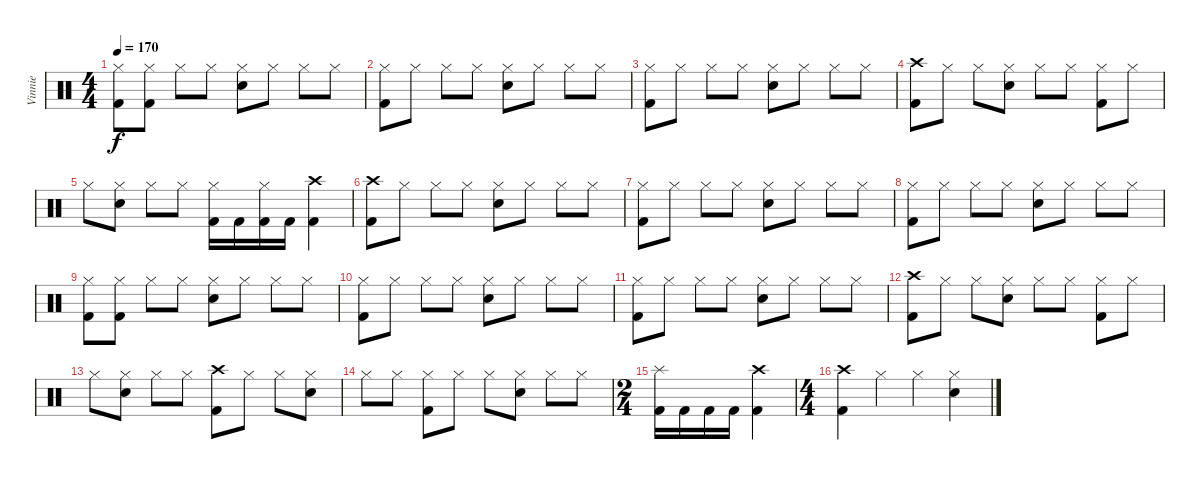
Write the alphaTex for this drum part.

\track ("Vinnie" "Vinnie") {instrument percussion}
\staff {score}
\articulation defaults
\ts (4 4)
\tempo 170
\clef neutral
\ks c
("Hi-Hat (closed)" "Kick (hit) 2").8{dy f} ("Hi-Hat (closed)" "Kick (hit) 2").8 "Hi-Hat (closed)".8 "Hi-Hat (closed)".8 ("Hi-Hat (closed)" "Electric Snare (hit)").8 "Hi-Hat (closed)".8 "Hi-Hat (closed)".8 "Hi-Hat (closed)".8 |
("Hi-Hat (closed)" "Kick (hit) 2").8 "Hi-Hat (closed)".8 "Hi-Hat (closed)".8 "Hi-Hat (closed)".8 ("Hi-Hat (closed)" "Electric Snare (hit)").8 "Hi-Hat (closed)".8 "Hi-Hat (closed)".8 "Hi-Hat (closed)".8 |
("Hi-Hat (closed)" "Kick (hit) 2").8 "Hi-Hat (closed)".8 "Hi-Hat (closed)".8 "Hi-Hat (closed)".8 ("Hi-Hat (closed)" "Electric Snare (hit)").8 "Hi-Hat (closed)".8 "Hi-Hat (closed)".8 "Hi-Hat (closed)".8 |
("Crash high (hit)" "Kick (hit) 2").8 "Hi-Hat (closed)".8 "Hi-Hat (closed)".8 ("Hi-Hat (closed)" "Electric Snare (hit)").8 "Hi-Hat (closed)".8 "Hi-Hat (closed)".8 ("Hi-Hat (closed)" "Kick (hit) 2").8 "Hi-Hat (closed)".8 |
"Hi-Hat (closed)".8 ("Hi-Hat (closed)" "Electric Snare (hit)").8 "Hi-Hat (closed)".8 "Hi-Hat (closed)".8 ("Hi-Hat (closed)" "Kick (hit) 2").16 "Kick (hit) 2".16 ("Hi-Hat (closed)" "Kick (hit) 2").16 "Kick (hit) 2".16 ("Crash high (hit)" "Kick (hit) 2").4 |
("Crash high (hit)" "Kick (hit) 2").8 "Hi-Hat (closed)".8 "Hi-Hat (closed)".8 "Hi-Hat (closed)".8 ("Hi-Hat (closed)" "Electric Snare (hit)").8 "Hi-Hat (closed)".8 "Hi-Hat (closed)".8 "Hi-Hat (closed)".8 |
("Hi-Hat (closed)" "Kick (hit) 2").8 "Hi-Hat (closed)".8 "Hi-Hat (closed)".8 "Hi-Hat (closed)".8 ("Hi-Hat (closed)" "Electric Snare (hit)").8 "Hi-Hat (closed)".8 "Hi-Hat (closed)".8 "Hi-Hat (closed)".8 |
("Hi-Hat (closed)" "Kick (hit) 2").8 "Hi-Hat (closed)".8 "Hi-Hat (closed)".8 "Hi-Hat (closed)".8 ("Hi-Hat (closed)" "Electric Snare (hit)").8 "Hi-Hat (closed)".8 "Hi-Hat (closed)".8 "Hi-Hat (closed)".8 |
("Hi-Hat (closed)" "Kick (hit) 2").8 ("Hi-Hat (closed)" "Kick (hit) 2").8 "Hi-Hat (closed)".8 "Hi-Hat (closed)".8 ("Hi-Hat (closed)" "Electric Snare (hit)").8 "Hi-Hat (closed)".8 "Hi-Hat (closed)".8 "Hi-Hat (closed)".8 |
("Hi-Hat (closed)" "Kick (hit) 2").8 "Hi-Hat (closed)".8 "Hi-Hat (closed)".8 "Hi-Hat (closed)".8 ("Hi-Hat (closed)" "Electric Snare (hit)").8 "Hi-Hat (closed)".8 "Hi-Hat (closed)".8 "Hi-Hat (closed)".8 |
("Hi-Hat (closed)" "Kick (hit) 2").8 "Hi-Hat (closed)".8 "Hi-Hat (closed)".8 "Hi-Hat (closed)".8 ("Hi-Hat (closed)" "Electric Snare (hit)").8 "Hi-Hat (closed)".8 "Hi-Hat (closed)".8 "Hi-Hat (closed)".8 |
("Crash high (hit)" "Kick (hit) 2").8 "Hi-Hat (closed)".8 "Hi-Hat (closed)".8 ("Hi-Hat (closed)" "Electric Snare (hit)").8 "Hi-Hat (closed)".8 "Hi-Hat (closed)".8 ("Hi-Hat (closed)" "Kick (hit) 2").8 "Hi-Hat (closed)".8 |
"Hi-Hat (closed)".8 ("Hi-Hat (closed)" "Electric Snare (hit)").8 "Hi-Hat (closed)".8 "Hi-Hat (closed)".8 ("Crash high (hit)" "Kick (hit) 2").8 "Hi-Hat (closed)".8 "Hi-Hat (closed)".8 ("Hi-Hat (closed)" "Electric Snare (hit)").8 |
"Hi-Hat (closed)".8 "Hi-Hat (closed)".8 ("Hi-Hat (closed)" "Kick (hit) 2").8 "Hi-Hat (closed)".8 "Hi-Hat (closed)".8 ("Hi-Hat (closed)" "Electric Snare (hit)").8 "Hi-Hat (closed)".8 "Hi-Hat (closed)".8 |
\ts (2 4)
("Splash (hit)" "Kick (hit) 2").16 "Kick (hit) 2".16 "Kick (hit) 2".16 "Kick (hit) 2".16 ("Crash high (hit)" "Kick (hit) 2").4 |
\ts (4 4)
("Crash high (hit)" "Kick (hit) 2").4 "Hi-Hat (closed)".4 "Hi-Hat (closed)".4 ("Hi-Hat (closed)" "Electric Snare (hit)").4
